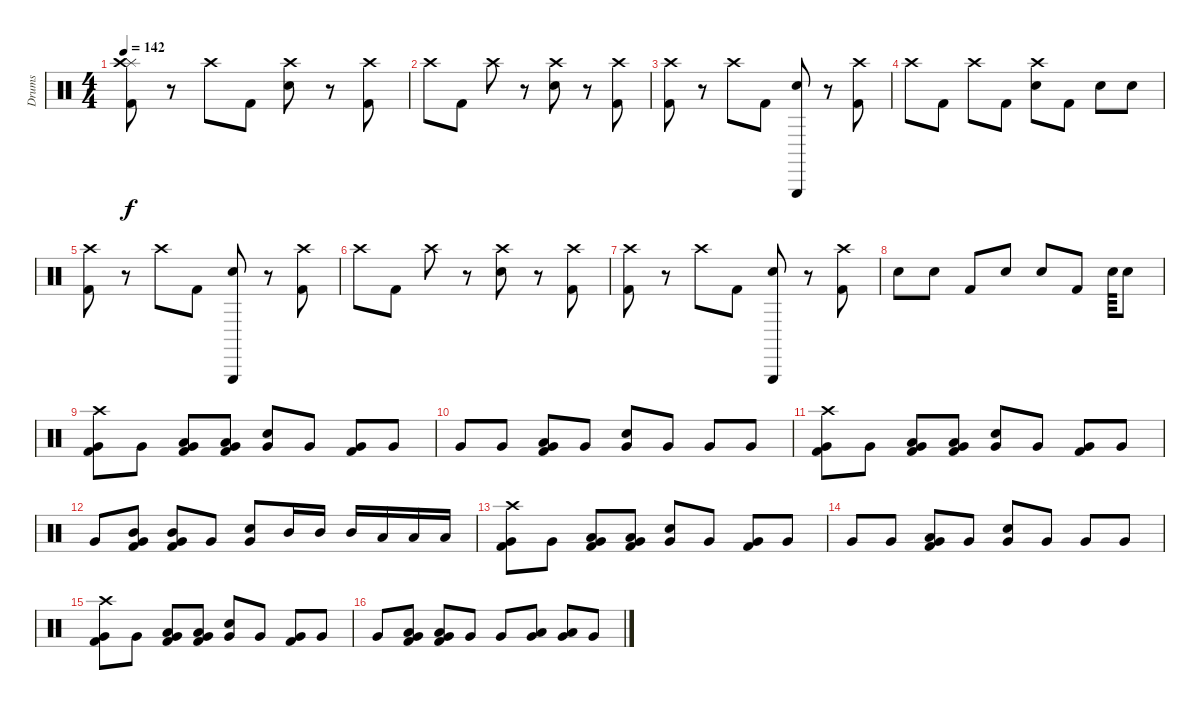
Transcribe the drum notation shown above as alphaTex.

\track ("Drums" "Drums") {instrument percussion}
\staff {score}
\articulation defaults
\ts (4 4)
\tempo 142
\clef neutral
\ks c
("Splash (hit)" "Crash high (hit)" "Kick (hit) 2").8{dy f} r.8 "Crash high (hit)".8 "Kick (hit) 2".8 ("Crash high (hit)" "Snare (hit) 2").8 r.8 ("Crash high (hit)" "Kick (hit) 2").8 |
"Crash high (hit)".8 "Kick (hit) 2".8 "Crash high (hit)".8 r.8 ("Crash high (hit)" "Snare (hit) 2").8 r.8 ("Crash high (hit)" "Kick (hit) 2").8 |
("Crash high (hit)" "Kick (hit) 2").8 r.8 "Crash high (hit)".8 "Kick (hit) 2".8 ("Triangle (hit)" "Snare (hit) 2").8 r.8 ("Crash high (hit)" "Kick (hit) 2").8 |
"Crash high (hit)".8 "Kick (hit) 2".8 "Crash high (hit)".8 "Kick (hit) 2".8 ("Crash high (hit)" "Snare (hit) 2").8 "Kick (hit) 2".8 "Snare (hit) 2".8 "Snare (hit) 2".8 |
("Crash high (hit)" "Kick (hit) 2").8 r.8 "Crash high (hit)".8 "Kick (hit) 2".8 ("Triangle (hit)" "Snare (hit) 2").8 r.8 ("Crash high (hit)" "Kick (hit) 2").8 |
"Crash high (hit)".8 "Kick (hit) 2".8 "Crash high (hit)".8 r.8 ("Crash high (hit)" "Snare (hit) 2").8 r.8 ("Crash high (hit)" "Kick (hit) 2").8 |
("Crash high (hit)" "Kick (hit) 2").8 r.8 "Crash high (hit)".8 "Kick (hit) 2".8 ("Triangle (hit)" "Snare (hit) 2").8 r.8 ("Crash high (hit)" "Kick (hit) 2").8 |
"Snare (hit) 2".8 "Snare (hit) 2".8 "Kick (hit) 2".8 "Snare (hit) 2".8 "Snare (hit) 2".8 "Kick (hit) 2".8 "Snare (hit) 2".64 "Snare (hit) 2".8 |
("Crash high (hit)" "Very Low Tom (hit)" "Kick (hit) 2").8 "Very Low Tom (hit)".8 ("Very Low Tom (hit)" "Low Tom (hit)" "Kick (hit) 2").8 ("Very Low Tom (hit)" "Low Tom (hit)" "Kick (hit) 2").8 ("Very Low Tom (hit)" "Snare (hit) 2").8 "Very Low Tom (hit)".8 ("Very Low Tom (hit)" "Kick (hit) 2").8 "Very Low Tom (hit)".8 |
"Very Low Tom (hit)".8 "Very Low Tom (hit)".8 ("Very Low Tom (hit)" "Low Tom (hit)" "Kick (hit) 2").8 "Very Low Tom (hit)".8 ("Very Low Tom (hit)" "Snare (hit) 2").8 "Very Low Tom (hit)".8 "Very Low Tom (hit)".8 "Very Low Tom (hit)".8 |
("Crash high (hit)" "Very Low Tom (hit)" "Kick (hit) 2").8 "Very Low Tom (hit)".8 ("Very Low Tom (hit)" "Low Tom (hit)" "Kick (hit) 2").8 ("Very Low Tom (hit)" "Low Tom (hit)" "Kick (hit) 2").8 ("Very Low Tom (hit)" "Snare (hit) 2").8 "Very Low Tom (hit)".8 ("Very Low Tom (hit)" "Kick (hit) 2").8 "Very Low Tom (hit)".8 |
"Very Low Tom (hit)".8 ("Very Low Tom (hit)" "Mid Tom (hit)" "Kick (hit) 2").8 ("Very Low Tom (hit)" "Mid Tom (hit)" "Kick (hit) 2").8 "Very Low Tom (hit)".8 ("Very Low Tom (hit)" "Snare (hit) 2").8 "Mid Tom (hit)".16 "Mid Tom (hit)".16 "Mid Tom (hit)".16 "Low Tom (hit)".16 "Low Tom (hit)".16 "Low Tom (hit)".16 |
("Crash high (hit)" "Very Low Tom (hit)" "Kick (hit) 2").8 "Very Low Tom (hit)".8 ("Very Low Tom (hit)" "Low Tom (hit)" "Kick (hit) 2").8 ("Very Low Tom (hit)" "Low Tom (hit)" "Kick (hit) 2").8 ("Very Low Tom (hit)" "Snare (hit) 2").8 "Very Low Tom (hit)".8 ("Very Low Tom (hit)" "Kick (hit) 2").8 "Very Low Tom (hit)".8 |
"Very Low Tom (hit)".8 "Very Low Tom (hit)".8 ("Very Low Tom (hit)" "Low Tom (hit)" "Kick (hit) 2").8 "Very Low Tom (hit)".8 ("Very Low Tom (hit)" "Snare (hit) 2").8 "Very Low Tom (hit)".8 "Very Low Tom (hit)".8 "Very Low Tom (hit)".8 |
("Crash high (hit)" "Very Low Tom (hit)" "Kick (hit) 2").8 "Very Low Tom (hit)".8 ("Very Low Tom (hit)" "Low Tom (hit)" "Kick (hit) 2").8 ("Very Low Tom (hit)" "Low Tom (hit)" "Kick (hit) 2").8 ("Very Low Tom (hit)" "Snare (hit) 2").8 "Very Low Tom (hit)".8 ("Very Low Tom (hit)" "Kick (hit) 2").8 "Very Low Tom (hit)".8 |
"Very Low Tom (hit)".8 ("Very Low Tom (hit)" "Low Tom (hit)" "Kick (hit) 2").8 ("Very Low Tom (hit)" "Low Tom (hit)" "Kick (hit) 2").8 "Very Low Tom (hit)".8 "Very Low Tom (hit)".8 ("Very Low Tom (hit)" "Low Tom (hit)").8 ("Very Low Tom (hit)" "Low Tom (hit)").8 "Very Low Tom (hit)".8
